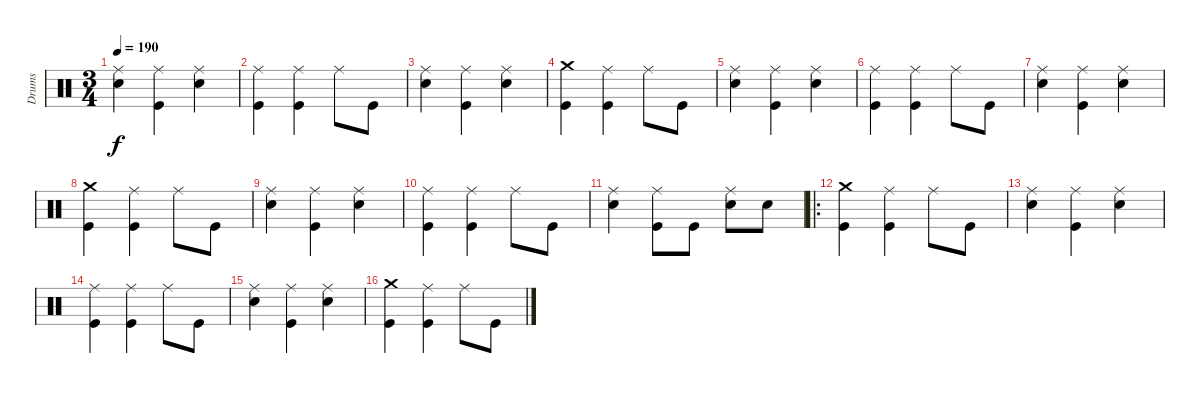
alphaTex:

\track ("Drums" "Drums") {instrument percussion bank 1}
\staff {score}
\articulation defaults
\ts (3 4)
\tempo 190
\clef neutral
\ks c
("Snare (hit) 2" "Ride (middle)").4{dy f} ("Kick (hit)" "Ride (middle)").4 ("Snare (hit) 2" "Ride (middle)").4 |
("Kick (hit)" "Ride (middle)").4 ("Kick (hit)" "Ride (middle)").4 "Ride (middle)".8 "Kick (hit)".8 |
("Snare (hit) 2" "Ride (middle)").4 ("Kick (hit)" "Ride (middle)").4 ("Snare (hit) 2" "Ride (middle)").4 |
("Kick (hit)" "Crash medium (hit)").4 ("Kick (hit)" "Ride (middle)").4 "Ride (middle)".8 "Kick (hit)".8 |
("Snare (hit) 2" "Ride (middle)").4 ("Kick (hit)" "Ride (middle)").4 ("Snare (hit) 2" "Ride (middle)").4 |
("Kick (hit)" "Ride (middle)").4 ("Kick (hit)" "Ride (middle)").4 "Ride (middle)".8 "Kick (hit)".8 |
("Snare (hit) 2" "Ride (middle)").4 ("Kick (hit)" "Ride (middle)").4 ("Snare (hit) 2" "Ride (middle)").4 |
("Kick (hit)" "Crash medium (hit)").4 ("Kick (hit)" "Ride (middle)").4 "Ride (middle)".8 "Kick (hit)".8 |
("Snare (hit) 2" "Ride (middle)").4 ("Kick (hit)" "Ride (middle)").4 ("Snare (hit) 2" "Ride (middle)").4 |
("Kick (hit)" "Ride (middle)").4 ("Kick (hit)" "Ride (middle)").4 "Ride (middle)".8 "Kick (hit)".8 |
("Snare (hit) 2" "Ride (middle)").4 ("Kick (hit)" "Ride (middle)").8 "Kick (hit)".8 ("Snare (hit) 2" "Ride (middle)").8 "Snare (hit) 2".8 |
\ro
("Kick (hit)" "Crash medium (hit)").4 ("Kick (hit)" "Ride (middle)").4 "Ride (middle)".8 "Kick (hit)".8 |
("Snare (hit) 2" "Ride (middle)").4 ("Kick (hit)" "Ride (middle)").4 ("Snare (hit) 2" "Ride (middle)").4 |
("Kick (hit)" "Ride (middle)").4 ("Kick (hit)" "Ride (middle)").4 "Ride (middle)".8 "Kick (hit)".8 |
("Snare (hit) 2" "Ride (middle)").4 ("Kick (hit)" "Ride (middle)").4 ("Snare (hit) 2" "Ride (middle)").4 |
("Kick (hit)" "Crash medium (hit)").4 ("Kick (hit)" "Ride (middle)").4 "Ride (middle)".8 "Kick (hit)".8
